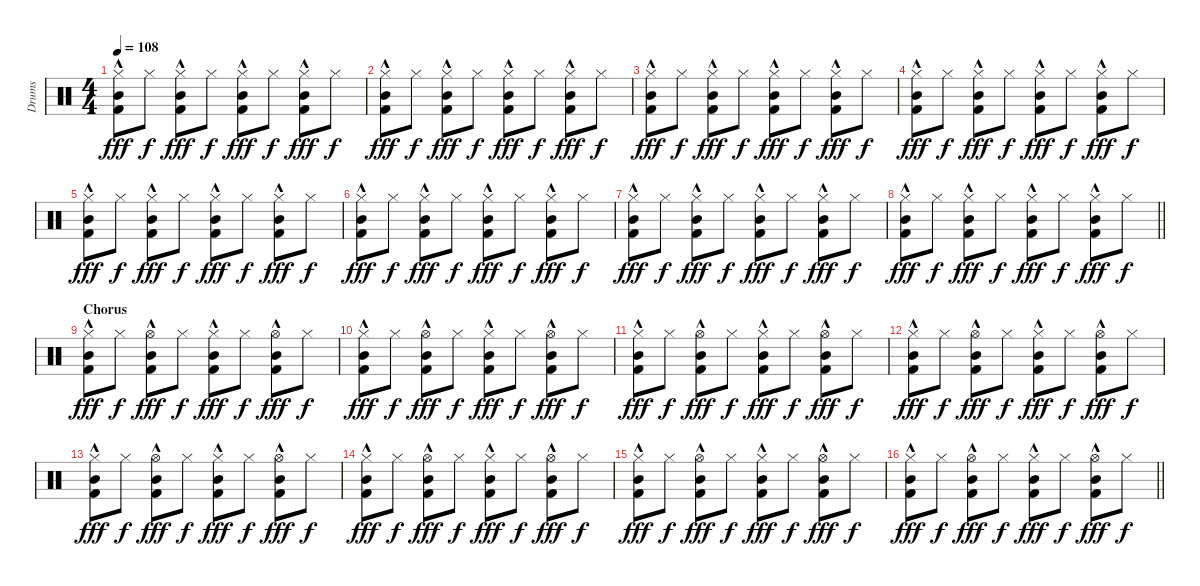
\track ("Drums" "Drums") {instrument percussion}
\staff {score}
\articulation defaults
\ts (4 4)
\tempo 108
\clef neutral
\ks c
("Hi-Hat (closed)" "Mid Tom (hit)" "Kick (hit) 2"{hac}).8{dy fff} "Hi-Hat (closed)".8{dy f} ("Hi-Hat (closed)" "Mid Tom (hit)" "Kick (hit) 2"{hac}).8{dy fff} "Hi-Hat (closed)".8{dy f} ("Hi-Hat (closed)" "Mid Tom (hit)" "Kick (hit) 2"{hac}).8{dy fff} "Hi-Hat (closed)".8{dy f} ("Hi-Hat (closed)" "Mid Tom (hit)" "Kick (hit) 2"{hac}).8{dy fff} "Hi-Hat (closed)".8{dy f} |
("Hi-Hat (closed)" "Mid Tom (hit)" "Kick (hit) 2"{hac}).8{dy fff} "Hi-Hat (closed)".8{dy f} ("Hi-Hat (closed)" "Mid Tom (hit)" "Kick (hit) 2"{hac}).8{dy fff} "Hi-Hat (closed)".8{dy f} ("Hi-Hat (closed)" "Mid Tom (hit)" "Kick (hit) 2"{hac}).8{dy fff} "Hi-Hat (closed)".8{dy f} ("Hi-Hat (closed)" "Mid Tom (hit)" "Kick (hit) 2"{hac}).8{dy fff} "Hi-Hat (closed)".8{dy f} |
("Hi-Hat (closed)" "Mid Tom (hit)" "Kick (hit) 2"{hac}).8{dy fff} "Hi-Hat (closed)".8{dy f} ("Hi-Hat (closed)" "Mid Tom (hit)" "Kick (hit) 2"{hac}).8{dy fff} "Hi-Hat (closed)".8{dy f} ("Hi-Hat (closed)" "Mid Tom (hit)" "Kick (hit) 2"{hac}).8{dy fff} "Hi-Hat (closed)".8{dy f} ("Hi-Hat (closed)" "Mid Tom (hit)" "Kick (hit) 2"{hac}).8{dy fff} "Hi-Hat (closed)".8{dy f} |
("Hi-Hat (closed)" "Mid Tom (hit)" "Kick (hit) 2"{hac}).8{dy fff} "Hi-Hat (closed)".8{dy f} ("Hi-Hat (closed)" "Mid Tom (hit)" "Kick (hit) 2"{hac}).8{dy fff} "Hi-Hat (closed)".8{dy f} ("Hi-Hat (closed)" "Mid Tom (hit)" "Kick (hit) 2"{hac}).8{dy fff} "Hi-Hat (closed)".8{dy f} ("Hi-Hat (closed)" "Mid Tom (hit)" "Kick (hit) 2"{hac}).8{dy fff} "Hi-Hat (closed)".8{dy f} |
("Hi-Hat (closed)" "Mid Tom (hit)" "Kick (hit) 2"{hac}).8{dy fff} "Hi-Hat (closed)".8{dy f} ("Hi-Hat (closed)" "Mid Tom (hit)" "Kick (hit) 2"{hac}).8{dy fff} "Hi-Hat (closed)".8{dy f} ("Hi-Hat (closed)" "Mid Tom (hit)" "Kick (hit) 2"{hac}).8{dy fff} "Hi-Hat (closed)".8{dy f} ("Hi-Hat (closed)" "Mid Tom (hit)" "Kick (hit) 2"{hac}).8{dy fff} "Hi-Hat (closed)".8{dy f} |
("Hi-Hat (closed)" "Mid Tom (hit)" "Kick (hit) 2"{hac}).8{dy fff} "Hi-Hat (closed)".8{dy f} ("Hi-Hat (closed)" "Mid Tom (hit)" "Kick (hit) 2"{hac}).8{dy fff} "Hi-Hat (closed)".8{dy f} ("Hi-Hat (closed)" "Mid Tom (hit)" "Kick (hit) 2"{hac}).8{dy fff} "Hi-Hat (closed)".8{dy f} ("Hi-Hat (closed)" "Mid Tom (hit)" "Kick (hit) 2"{hac}).8{dy fff} "Hi-Hat (closed)".8{dy f} |
("Hi-Hat (closed)" "Mid Tom (hit)" "Kick (hit) 2"{hac}).8{dy fff} "Hi-Hat (closed)".8{dy f} ("Hi-Hat (closed)" "Mid Tom (hit)" "Kick (hit) 2"{hac}).8{dy fff} "Hi-Hat (closed)".8{dy f} ("Hi-Hat (closed)" "Mid Tom (hit)" "Kick (hit) 2"{hac}).8{dy fff} "Hi-Hat (closed)".8{dy f} ("Hi-Hat (closed)" "Mid Tom (hit)" "Kick (hit) 2"{hac}).8{dy fff} "Hi-Hat (closed)".8{dy f} |
\barLineRight lightlight
("Hi-Hat (closed)" "Mid Tom (hit)" "Kick (hit) 2"{hac}).8{dy fff} "Hi-Hat (closed)".8{dy f} ("Hi-Hat (closed)" "Mid Tom (hit)" "Kick (hit) 2"{hac}).8{dy fff} "Hi-Hat (closed)".8{dy f} ("Hi-Hat (closed)" "Mid Tom (hit)" "Kick (hit) 2"{hac}).8{dy fff} "Hi-Hat (closed)".8{dy f} ("Hi-Hat (closed)" "Mid Tom (hit)" "Kick (hit) 2"{hac}).8{dy fff} "Hi-Hat (closed)".8{dy f} |
\section ("" "Chorus")
("Hi-Hat (closed)" "Mid Tom (hit)" "Kick (hit) 2"{hac}).8{dy fff} "Hi-Hat (closed)".8{dy f} ("Hi-Hat (open)" "Mid Tom (hit)" "Kick (hit) 2"{hac}).8{dy fff} "Hi-Hat (closed)".8{dy f} ("Hi-Hat (closed)" "Mid Tom (hit)" "Kick (hit) 2"{hac}).8{dy fff} "Hi-Hat (closed)".8{dy f} ("Hi-Hat (open)" "Mid Tom (hit)" "Kick (hit) 2"{hac}).8{dy fff} "Hi-Hat (closed)".8{dy f} |
("Hi-Hat (closed)" "Mid Tom (hit)" "Kick (hit) 2"{hac}).8{dy fff} "Hi-Hat (closed)".8{dy f} ("Hi-Hat (open)" "Mid Tom (hit)" "Kick (hit) 2"{hac}).8{dy fff} "Hi-Hat (closed)".8{dy f} ("Hi-Hat (closed)" "Mid Tom (hit)" "Kick (hit) 2"{hac}).8{dy fff} "Hi-Hat (closed)".8{dy f} ("Hi-Hat (open)" "Mid Tom (hit)" "Kick (hit) 2"{hac}).8{dy fff} "Hi-Hat (closed)".8{dy f} |
("Hi-Hat (closed)" "Mid Tom (hit)" "Kick (hit) 2"{hac}).8{dy fff} "Hi-Hat (closed)".8{dy f} ("Hi-Hat (open)" "Mid Tom (hit)" "Kick (hit) 2"{hac}).8{dy fff} "Hi-Hat (closed)".8{dy f} ("Hi-Hat (closed)" "Mid Tom (hit)" "Kick (hit) 2"{hac}).8{dy fff} "Hi-Hat (closed)".8{dy f} ("Hi-Hat (open)" "Mid Tom (hit)" "Kick (hit) 2"{hac}).8{dy fff} "Hi-Hat (closed)".8{dy f} |
("Hi-Hat (closed)" "Mid Tom (hit)" "Kick (hit) 2"{hac}).8{dy fff} "Hi-Hat (closed)".8{dy f} ("Hi-Hat (open)" "Mid Tom (hit)" "Kick (hit) 2"{hac}).8{dy fff} "Hi-Hat (closed)".8{dy f} ("Hi-Hat (closed)" "Mid Tom (hit)" "Kick (hit) 2"{hac}).8{dy fff} "Hi-Hat (closed)".8{dy f} ("Hi-Hat (open)" "Mid Tom (hit)" "Kick (hit) 2"{hac}).8{dy fff} "Hi-Hat (closed)".8{dy f} |
("Hi-Hat (closed)" "Mid Tom (hit)" "Kick (hit) 2"{hac}).8{dy fff} "Hi-Hat (closed)".8{dy f} ("Hi-Hat (open)" "Mid Tom (hit)" "Kick (hit) 2"{hac}).8{dy fff} "Hi-Hat (closed)".8{dy f} ("Hi-Hat (closed)" "Mid Tom (hit)" "Kick (hit) 2"{hac}).8{dy fff} "Hi-Hat (closed)".8{dy f} ("Hi-Hat (open)" "Mid Tom (hit)" "Kick (hit) 2"{hac}).8{dy fff} "Hi-Hat (closed)".8{dy f} |
("Hi-Hat (closed)" "Mid Tom (hit)" "Kick (hit) 2"{hac}).8{dy fff} "Hi-Hat (closed)".8{dy f} ("Hi-Hat (open)" "Mid Tom (hit)" "Kick (hit) 2"{hac}).8{dy fff} "Hi-Hat (closed)".8{dy f} ("Hi-Hat (closed)" "Mid Tom (hit)" "Kick (hit) 2"{hac}).8{dy fff} "Hi-Hat (closed)".8{dy f} ("Hi-Hat (open)" "Mid Tom (hit)" "Kick (hit) 2"{hac}).8{dy fff} "Hi-Hat (closed)".8{dy f} |
("Hi-Hat (closed)" "Mid Tom (hit)" "Kick (hit) 2"{hac}).8{dy fff} "Hi-Hat (closed)".8{dy f} ("Hi-Hat (open)" "Mid Tom (hit)" "Kick (hit) 2"{hac}).8{dy fff} "Hi-Hat (closed)".8{dy f} ("Hi-Hat (closed)" "Mid Tom (hit)" "Kick (hit) 2"{hac}).8{dy fff} "Hi-Hat (closed)".8{dy f} ("Hi-Hat (open)" "Mid Tom (hit)" "Kick (hit) 2"{hac}).8{dy fff} "Hi-Hat (closed)".8{dy f} |
\barLineRight lightlight
("Hi-Hat (closed)" "Mid Tom (hit)" "Kick (hit) 2"{hac}).8{dy fff} "Hi-Hat (closed)".8{dy f} ("Hi-Hat (open)" "Mid Tom (hit)" "Kick (hit) 2"{hac}).8{dy fff} "Hi-Hat (closed)".8{dy f} ("Hi-Hat (closed)" "Mid Tom (hit)" "Kick (hit) 2"{hac}).8{dy fff} "Hi-Hat (closed)".8{dy f} ("Hi-Hat (open)" "Mid Tom (hit)" "Kick (hit) 2"{hac}).8{dy fff} "Hi-Hat (closed)".8{dy f}
